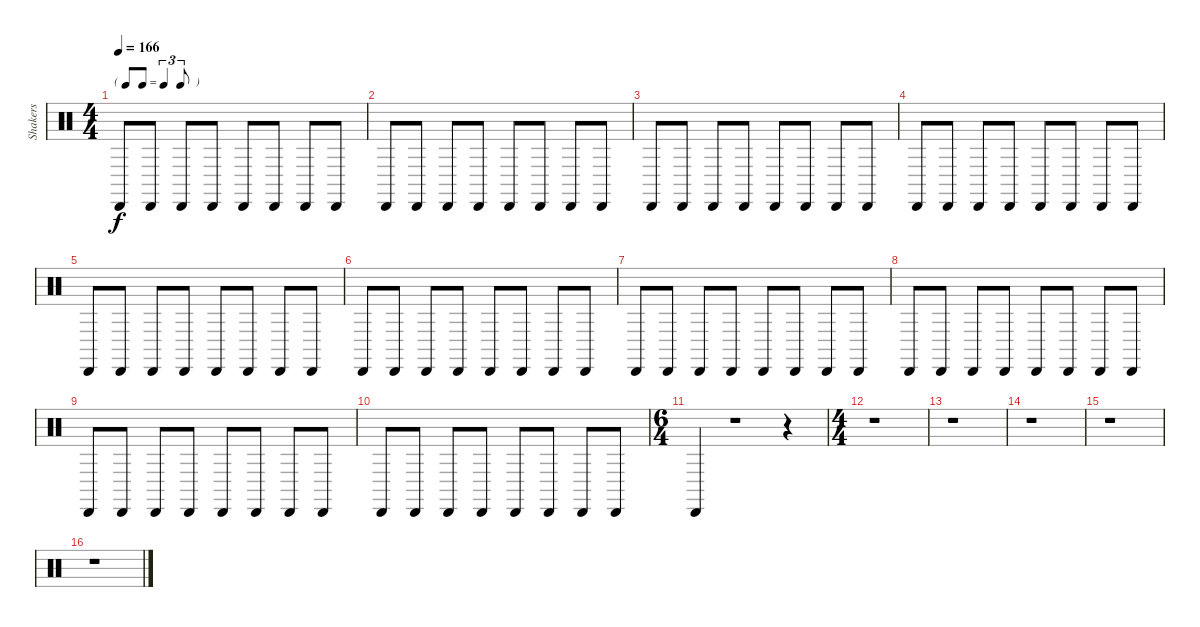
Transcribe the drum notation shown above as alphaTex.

\track ("Shakers" "Shakers") {instrument percussion}
\staff {score}
\articulation defaults
\ts (4 4)
\tf triplet8th
\tempo 166
\clef neutral
\ks c "Cabasa (hit)".8{dy f} "Cabasa (hit)".8 "Cabasa (hit)".8 "Cabasa (hit)".8 "Cabasa (hit)".8 "Cabasa (hit)".8 "Cabasa (hit)".8 "Cabasa (hit)".8
|
"Cabasa (hit)".8 "Cabasa (hit)".8 "Cabasa (hit)".8 "Cabasa (hit)".8 "Cabasa (hit)".8 "Cabasa (hit)".8 "Cabasa (hit)".8 "Cabasa (hit)".8 |
"Cabasa (hit)".8 "Cabasa (hit)".8 "Cabasa (hit)".8 "Cabasa (hit)".8 "Cabasa (hit)".8 "Cabasa (hit)".8 "Cabasa (hit)".8 "Cabasa (hit)".8 |
"Cabasa (hit)".8 "Cabasa (hit)".8 "Cabasa (hit)".8 "Cabasa (hit)".8 "Cabasa (hit)".8 "Cabasa (hit)".8 "Cabasa (hit)".8 "Cabasa (hit)".8 |
"Cabasa (hit)".8 "Cabasa (hit)".8 "Cabasa (hit)".8 "Cabasa (hit)".8 "Cabasa (hit)".8 "Cabasa (hit)".8 "Cabasa (hit)".8 "Cabasa (hit)".8 |
"Cabasa (hit)".8 "Cabasa (hit)".8 "Cabasa (hit)".8 "Cabasa (hit)".8 "Cabasa (hit)".8 "Cabasa (hit)".8 "Cabasa (hit)".8 "Cabasa (hit)".8 |
"Cabasa (hit)".8 "Cabasa (hit)".8 "Cabasa (hit)".8 "Cabasa (hit)".8 "Cabasa (hit)".8 "Cabasa (hit)".8 "Cabasa (hit)".8 "Cabasa (hit)".8 |
"Cabasa (hit)".8 "Cabasa (hit)".8 "Cabasa (hit)".8 "Cabasa (hit)".8 "Cabasa (hit)".8 "Cabasa (hit)".8 "Cabasa (hit)".8 "Cabasa (hit)".8 |
"Cabasa (hit)".8 "Cabasa (hit)".8 "Cabasa (hit)".8 "Cabasa (hit)".8 "Cabasa (hit)".8 "Cabasa (hit)".8 "Cabasa (hit)".8 "Cabasa (hit)".8 |
"Cabasa (hit)".8 "Cabasa (hit)".8 "Cabasa (hit)".8 "Cabasa (hit)".8 "Cabasa (hit)".8 "Cabasa (hit)".8 "Cabasa (hit)".8 "Cabasa (hit)".8 |
\ts (6 4)
"Cabasa (hit)".4 r.1 r.4 |
\ts (4 4)
r.1 |
r.1 |
r.1 |
r.1 |
r.1
